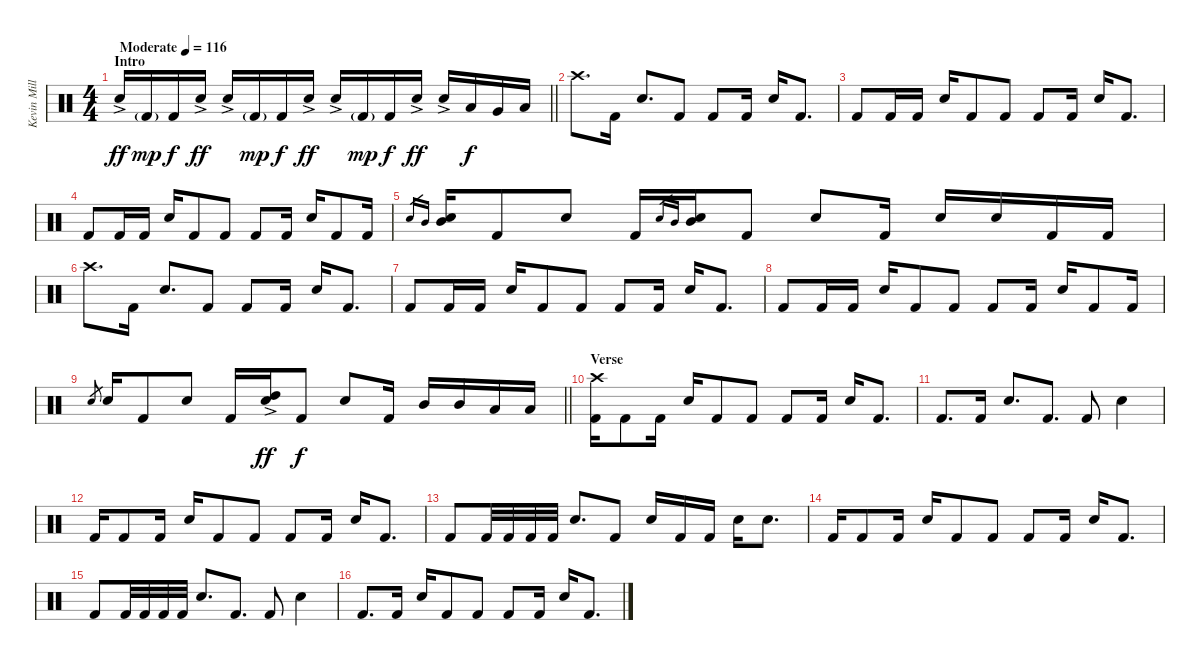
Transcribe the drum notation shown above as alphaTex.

\track ("Kevin Miller (Drums)" "Kevin Mill") {instrument percussion}
\staff {score}
\articulation defaults
\ts (4 4)
\section ("" "Intro")
\tempo (116 "Moderate")
\clef neutral
\barLineRight lightlight
\ks c "Electric Snare (hit)"{ac}.16{dy ff} "Kick (hit) 2"{g}.16{dy mp} "Kick (hit) 2".16{dy f} "Electric Snare (hit)"{ac}.16{dy ff} "Electric Snare (hit)"{ac}.16 "Kick (hit) 2"{g}.16{dy mp} "Kick (hit) 2".16{dy f} "Electric Snare (hit)"{ac}.16{dy ff} "Electric Snare (hit)"{ac}.16 "Kick (hit) 2"{g}.16{dy mp} "Kick (hit) 2".16{dy f} "Electric Snare (hit)"{ac}.16{dy ff} "Electric Snare (hit)"{ac}.16 "Low Tom (hit)".16{dy f} "Very Low Tom (hit)".16 "Low Floor Tom (hit)".16
|
"Crash high (hit)".8{d} "Kick (hit) 2".16 "Electric Snare (hit)".8{d} "Kick (hit) 2".8 "Kick (hit) 2".8 "Kick (hit) 2".16 "Electric Snare (hit)".16 "Kick (hit) 2".8{d} |
"Kick (hit) 2".8 "Kick (hit) 2".16 "Kick (hit) 2".16 "Electric Snare (hit)".16 "Kick (hit) 2".8 "Kick (hit) 2".8 "Kick (hit) 2".8 "Kick (hit) 2".16 "Electric Snare (hit)".16 "Kick (hit) 2".8{d} |
"Kick (hit) 2".8 "Kick (hit) 2".16 "Kick (hit) 2".16 "Electric Snare (hit)".16 "Kick (hit) 2".8 "Kick (hit) 2".8 "Kick (hit) 2".8 "Kick (hit) 2".16 "Electric Snare (hit)".16 "Kick (hit) 2".8 "Kick (hit) 2".16 |
"Electric Snare (hit)".16{gr} "Mid Tom (hit)".16{gr} ("Electric Snare (hit)" "Mid Tom (hit)").16 "Kick (hit) 2".8 "Electric Snare (hit)".8 "Kick (hit) 2".16 "Electric Snare (hit)".16{gr} "Mid Tom (hit)".16{gr} ("Electric Snare (hit)" "Mid Tom (hit)").16 "Kick (hit) 2".8 "Electric Snare (hit)".8 "Kick (hit) 2".16 "Electric Snare (hit)".16 "Electric Snare (hit)".16 "Kick (hit) 2".16 "Kick (hit) 2".16 |
"Crash high (hit)".8{d} "Kick (hit) 2".16 "Electric Snare (hit)".8{d} "Kick (hit) 2".8 "Kick (hit) 2".8 "Kick (hit) 2".16 "Electric Snare (hit)".16 "Kick (hit) 2".8{d} |
"Kick (hit) 2".8 "Kick (hit) 2".16 "Kick (hit) 2".16 "Electric Snare (hit)".16 "Kick (hit) 2".8 "Kick (hit) 2".8 "Kick (hit) 2".8 "Kick (hit) 2".16 "Electric Snare (hit)".16 "Kick (hit) 2".8{d} |
"Kick (hit) 2".8 "Kick (hit) 2".16 "Kick (hit) 2".16 "Electric Snare (hit)".16 "Kick (hit) 2".8 "Kick (hit) 2".8 "Kick (hit) 2".8 "Kick (hit) 2".16 "Electric Snare (hit)".16 "Kick (hit) 2".8 "Kick (hit) 2".16 |
\barLineRight lightlight "Electric Snare (hit)".8{gr} "Electric Snare (hit)".16 "Kick (hit) 2".8 "Electric Snare (hit)".8 "Kick (hit) 2".16
("Electric Snare (hit)" "High Tom (hit)"{ac}).16{dy ff} "Kick (hit) 2".8{dy f} "Electric Snare (hit)".8 "Kick (hit) 2".16 "Mid Tom (hit)".16 "Mid Tom (hit)".16 "Low Tom (hit)".16 "Low Tom (hit)".16 |
\section ("" "Verse")
("Crash high (hit)" "Kick (hit) 2").16 "Kick (hit) 2".8 "Kick (hit) 2".16 "Electric Snare (hit)".16 "Kick (hit) 2".8 "Kick (hit) 2".8 "Kick (hit) 2".8 "Kick (hit) 2".16 "Electric Snare (hit)".16 "Kick (hit) 2".8{d} |
"Kick (hit) 2".8{d} "Kick (hit) 2".16 "Electric Snare (hit)".8{d} "Kick (hit) 2".8{d} "Kick (hit) 2".8 "Electric Snare (hit)".4 |
"Kick (hit) 2".16 "Kick (hit) 2".8 "Kick (hit) 2".16 "Electric Snare (hit)".16 "Kick (hit) 2".8 "Kick (hit) 2".8 "Kick (hit) 2".8 "Kick (hit) 2".16 "Electric Snare (hit)".16 "Kick (hit) 2".8{d} |
"Kick (hit) 2".8 "Kick (hit) 2".32 "Kick (hit) 2".32 "Kick (hit) 2".32 "Kick (hit) 2".32 "Electric Snare (hit)".8{d} "Kick (hit) 2".8 "Electric Snare (hit)".16 "Kick (hit) 2".16 "Kick (hit) 2".16 "Electric Snare (hit)".16 "Electric Snare (hit)".8{d} |
"Kick (hit) 2".16 "Kick (hit) 2".8 "Kick (hit) 2".16 "Electric Snare (hit)".16 "Kick (hit) 2".8 "Kick (hit) 2".8 "Kick (hit) 2".8 "Kick (hit) 2".16 "Electric Snare (hit)".16 "Kick (hit) 2".8{d} |
"Kick (hit) 2".8 "Kick (hit) 2".32 "Kick (hit) 2".32 "Kick (hit) 2".32 "Kick (hit) 2".32 "Electric Snare (hit)".8{d} "Kick (hit) 2".8{d} "Kick (hit) 2".8 "Electric Snare (hit)".4 |
"Kick (hit) 2".8{d} "Kick (hit) 2".16 "Electric Snare (hit)".16 "Kick (hit) 2".8 "Kick (hit) 2".8 "Kick (hit) 2".8 "Kick (hit) 2".16 "Electric Snare (hit)".16 "Kick (hit) 2".8{d}
